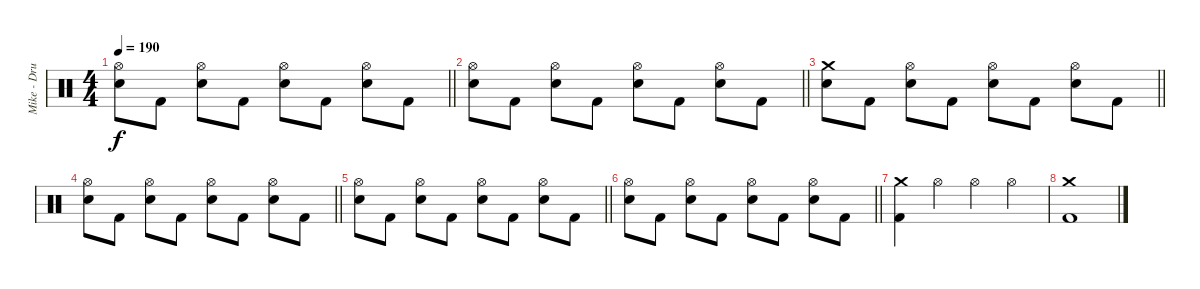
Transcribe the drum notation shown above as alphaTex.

\track ("Mike - Drums" "Mike - Dru") {instrument percussion}
\staff {score}
\articulation defaults
\ts (4 4)
\tempo 190
\clef neutral
\barLineRight lightlight
\ks c
("Hi-Hat (open)" "Electric Snare (hit)").8{dy f} "Kick (hit) 2".8 ("Hi-Hat (open)" "Electric Snare (hit)").8 "Kick (hit) 2".8 ("Hi-Hat (open)" "Electric Snare (hit)").8 "Kick (hit) 2".8 ("Hi-Hat (open)" "Electric Snare (hit)").8 "Kick (hit) 2".8 |
\barLineRight lightlight
("Hi-Hat (open)" "Electric Snare (hit)").8 "Kick (hit) 2".8 ("Hi-Hat (open)" "Electric Snare (hit)").8 "Kick (hit) 2".8 ("Hi-Hat (open)" "Electric Snare (hit)").8 "Kick (hit) 2".8 ("Hi-Hat (open)" "Electric Snare (hit)").8 "Kick (hit) 2".8 |
\barLineRight lightlight
("Crash medium (hit)" "Electric Snare (hit)").8 "Kick (hit) 2".8 ("Hi-Hat (open)" "Electric Snare (hit)").8 "Kick (hit) 2".8 ("Hi-Hat (open)" "Electric Snare (hit)").8 "Kick (hit) 2".8 ("Hi-Hat (open)" "Electric Snare (hit)").8 "Kick (hit) 2".8 |
\barLineRight lightlight
("Hi-Hat (open)" "Electric Snare (hit)").8 "Kick (hit) 2".8 ("Hi-Hat (open)" "Electric Snare (hit)").8 "Kick (hit) 2".8 ("Hi-Hat (open)" "Electric Snare (hit)").8 "Kick (hit) 2".8 ("Hi-Hat (open)" "Electric Snare (hit)").8 "Kick (hit) 2".8 |
\barLineRight lightlight
("Hi-Hat (open)" "Electric Snare (hit)").8 "Kick (hit) 2".8 ("Hi-Hat (open)" "Electric Snare (hit)").8 "Kick (hit) 2".8 ("Hi-Hat (open)" "Electric Snare (hit)").8 "Kick (hit) 2".8 ("Hi-Hat (open)" "Electric Snare (hit)").8 "Kick (hit) 2".8 |
\barLineRight lightlight
("Hi-Hat (open)" "Electric Snare (hit)").8 "Kick (hit) 2".8 ("Hi-Hat (open)" "Electric Snare (hit)").8 "Kick (hit) 2".8 ("Hi-Hat (open)" "Electric Snare (hit)").8 "Kick (hit) 2".8 ("Hi-Hat (open)" "Electric Snare (hit)").8 "Kick (hit) 2".8 |
("Crash medium (hit)" "Kick (hit) 2").4 "Hi-Hat (open)".4 "Hi-Hat (open)".4 "Hi-Hat (open)".4 |
("Crash medium (hit)" "Kick (hit) 2").1
